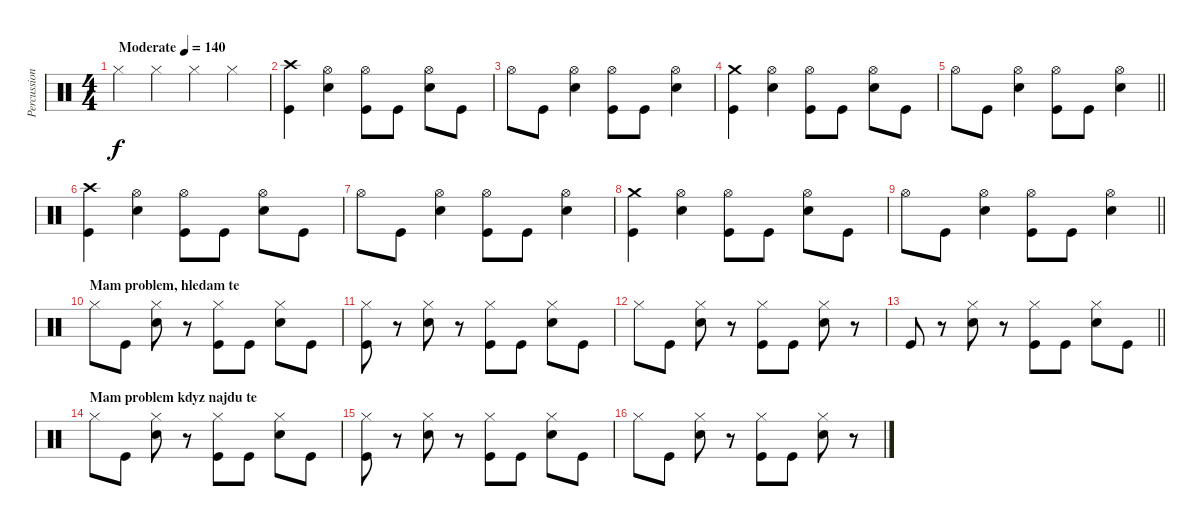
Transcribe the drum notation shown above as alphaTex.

\track ("Percussion" "Percussion") {instrument percussion}
\staff {score}
\articulation defaults
\ts (4 4)
\section ("" "")
\tempo (140 "Moderate")
\clef neutral
\ks c "Hi-Hat (closed)".4{dy f} "Hi-Hat (closed)".4 "Hi-Hat (closed)".4 "Hi-Hat (closed)".4
|
("Crash high (hit)" "Kick (hit)").4 ("Hi-Hat (open)" "Electric Snare (hit)").4 ("Hi-Hat (open)" "Kick (hit)").8 "Kick (hit)".8 ("Hi-Hat (open)" "Electric Snare (hit)").8 "Kick (hit)".8 |
"Hi-Hat (open)".8 "Kick (hit)".8 ("Hi-Hat (open)" "Electric Snare (hit)").4 ("Hi-Hat (open)" "Kick (hit)").8 "Kick (hit)".8 ("Hi-Hat (open)" "Electric Snare (hit)").4 |
("Crash medium (hit)" "Kick (hit)").4 ("Hi-Hat (open)" "Electric Snare (hit)").4 ("Hi-Hat (open)" "Kick (hit)").8 "Kick (hit)".8 ("Hi-Hat (open)" "Electric Snare (hit)").8 "Kick (hit)".8 |
\barLineRight lightlight "Hi-Hat (open)".8 "Kick (hit)".8
("Hi-Hat (open)" "Electric Snare (hit)").4 ("Hi-Hat (open)" "Kick (hit)").8 "Kick (hit)".8 ("Hi-Hat (open)" "Electric Snare (hit)").4 |
("Crash high (hit)" "Kick (hit)").4 ("Hi-Hat (open)" "Electric Snare (hit)").4 ("Hi-Hat (open)" "Kick (hit)").8 "Kick (hit)".8 ("Hi-Hat (open)" "Electric Snare (hit)").8 "Kick (hit)".8 |
"Hi-Hat (open)".8 "Kick (hit)".8 ("Hi-Hat (open)" "Electric Snare (hit)").4 ("Hi-Hat (open)" "Kick (hit)").8 "Kick (hit)".8 ("Hi-Hat (open)" "Electric Snare (hit)").4 |
("Crash medium (hit)" "Kick (hit)").4 ("Hi-Hat (open)" "Electric Snare (hit)").4 ("Hi-Hat (open)" "Kick (hit)").8 "Kick (hit)".8 ("Hi-Hat (open)" "Electric Snare (hit)").8 "Kick (hit)".8 |
\barLineRight lightlight "Hi-Hat (open)".8 "Kick (hit)".8
("Hi-Hat (open)" "Electric Snare (hit)").4 ("Hi-Hat (open)" "Kick (hit)").8 "Kick (hit)".8 ("Hi-Hat (open)" "Electric Snare (hit)").4 |
\section ("" "Mam problem, hledam te")
"Hi-Hat (closed)".8 "Kick (hit)".8 ("Electric Snare (hit)" "Hi-Hat (closed)").8 r.8 ("Kick (hit)" "Hi-Hat (closed)").8 "Kick (hit)".8 ("Electric Snare (hit)" "Hi-Hat (closed)").8 "Kick (hit)".8 |
("Kick (hit)" "Hi-Hat (closed)").8 r.8 ("Electric Snare (hit)" "Hi-Hat (closed)").8 r.8 ("Kick (hit)" "Hi-Hat (closed)").8 "Kick (hit)".8 ("Electric Snare (hit)" "Hi-Hat (closed)").8 "Kick (hit)".8 |
"Hi-Hat (closed)".8 "Kick (hit)".8 ("Electric Snare (hit)" "Hi-Hat (closed)").8 r.8 ("Kick (hit)" "Hi-Hat (closed)").8 "Kick (hit)".8 ("Electric Snare (hit)" "Hi-Hat (closed)").8 r.8 |
\barLineRight lightlight "Kick (hit)".8
r.8 ("Electric Snare (hit)" "Hi-Hat (closed)").8 r.8 ("Kick (hit)" "Hi-Hat (closed)").8 "Kick (hit)".8 ("Electric Snare (hit)" "Hi-Hat (closed)").8 "Kick (hit)".8 |
\section ("" "Mam problem kdyz najdu te")
"Hi-Hat (closed)".8 "Kick (hit)".8 ("Electric Snare (hit)" "Hi-Hat (closed)").8 r.8 ("Kick (hit)" "Hi-Hat (closed)").8 "Kick (hit)".8 ("Electric Snare (hit)" "Hi-Hat (closed)").8 "Kick (hit)".8 |
("Kick (hit)" "Hi-Hat (closed)").8 r.8 ("Electric Snare (hit)" "Hi-Hat (closed)").8 r.8 ("Kick (hit)" "Hi-Hat (closed)").8 "Kick (hit)".8 ("Electric Snare (hit)" "Hi-Hat (closed)").8 "Kick (hit)".8 |
"Hi-Hat (closed)".8 "Kick (hit)".8 ("Electric Snare (hit)" "Hi-Hat (closed)").8 r.8 ("Kick (hit)" "Hi-Hat (closed)").8 "Kick (hit)".8 ("Electric Snare (hit)" "Hi-Hat (closed)").8 r.8
